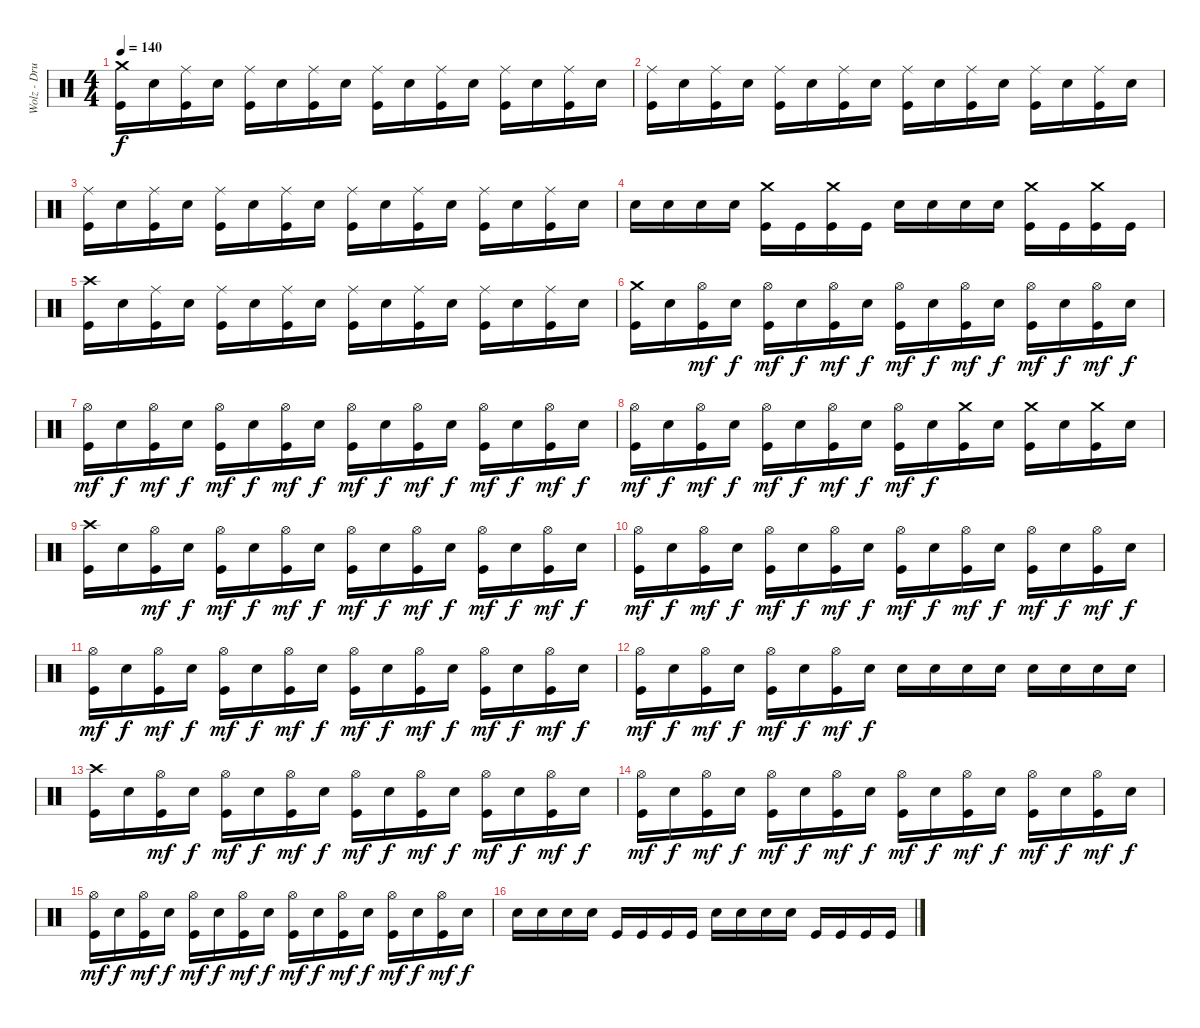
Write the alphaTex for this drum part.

\track ("Wolz - Drums" "Wolz - Dru") {instrument percussion}
\staff {score}
\articulation defaults
\ts (4 4)
\tempo 140
\clef neutral
\ks c
("Crash medium (hit)" "Kick (hit)").16{dy f} "Electric Snare (hit)".16 ("Ride (middle)" "Kick (hit)").16 "Electric Snare (hit)".16 ("Ride (middle)" "Kick (hit)").16 "Electric Snare (hit)".16 ("Ride (middle)" "Kick (hit)").16 "Electric Snare (hit)".16 ("Ride (middle)" "Kick (hit)").16 "Electric Snare (hit)".16 ("Ride (middle)" "Kick (hit)").16 "Electric Snare (hit)".16 ("Ride (middle)" "Kick (hit)").16 "Electric Snare (hit)".16 ("Ride (middle)" "Kick (hit)").16 "Electric Snare (hit)".16 |
("Ride (middle)" "Kick (hit)").16 "Electric Snare (hit)".16 ("Ride (middle)" "Kick (hit)").16 "Electric Snare (hit)".16 ("Ride (middle)" "Kick (hit)").16 "Electric Snare (hit)".16 ("Ride (middle)" "Kick (hit)").16 "Electric Snare (hit)".16 ("Ride (middle)" "Kick (hit)").16 "Electric Snare (hit)".16 ("Ride (middle)" "Kick (hit)").16 "Electric Snare (hit)".16 ("Ride (middle)" "Kick (hit)").16 "Electric Snare (hit)".16 ("Ride (middle)" "Kick (hit)").16 "Electric Snare (hit)".16 |
("Ride (middle)" "Kick (hit)").16 "Electric Snare (hit)".16 ("Ride (middle)" "Kick (hit)").16 "Electric Snare (hit)".16 ("Ride (middle)" "Kick (hit)").16 "Electric Snare (hit)".16 ("Ride (middle)" "Kick (hit)").16 "Electric Snare (hit)".16 ("Ride (middle)" "Kick (hit)").16 "Electric Snare (hit)".16 ("Ride (middle)" "Kick (hit)").16 "Electric Snare (hit)".16 ("Ride (middle)" "Kick (hit)").16 "Electric Snare (hit)".16 ("Ride (middle)" "Kick (hit)").16 "Electric Snare (hit)".16 |
"Electric Snare (hit)".16 "Electric Snare (hit)".16 "Electric Snare (hit)".16 "Electric Snare (hit)".16 ("Crash medium (hit)" "Kick (hit)").16 "Kick (hit)".16 ("Crash medium (hit)" "Kick (hit)").16 "Kick (hit)".16 "Electric Snare (hit)".16 "Electric Snare (hit)".16 "Electric Snare (hit)".16 "Electric Snare (hit)".16 ("Crash medium (hit)" "Kick (hit)").16 "Kick (hit)".16 ("Crash medium (hit)" "Kick (hit)").16 "Kick (hit)".16 |
("Crash high (hit)" "Kick (hit)").16 "Electric Snare (hit)".16 ("Ride (middle)" "Kick (hit)").16 "Electric Snare (hit)".16 ("Ride (middle)" "Kick (hit)").16 "Electric Snare (hit)".16 ("Ride (middle)" "Kick (hit)").16 "Electric Snare (hit)".16 ("Ride (middle)" "Kick (hit)").16 "Electric Snare (hit)".16 ("Ride (middle)" "Kick (hit)").16 "Electric Snare (hit)".16 ("Ride (middle)" "Kick (hit)").16 "Electric Snare (hit)".16 ("Ride (middle)" "Kick (hit)").16 "Electric Snare (hit)".16 |
("Crash medium (hit)" "Kick (hit)").16 "Electric Snare (hit)".16 ("Hi-Hat (open)" "Kick (hit)").16{dy mf} "Electric Snare (hit)".16{dy f} ("Hi-Hat (open)" "Kick (hit)").16{dy mf} "Electric Snare (hit)".16{dy f} ("Hi-Hat (open)" "Kick (hit)").16{dy mf} "Electric Snare (hit)".16{dy f} ("Hi-Hat (open)" "Kick (hit)").16{dy mf} "Electric Snare (hit)".16{dy f} ("Hi-Hat (open)" "Kick (hit)").16{dy mf} "Electric Snare (hit)".16{dy f} ("Hi-Hat (open)" "Kick (hit)").16{dy mf} "Electric Snare (hit)".16{dy f} ("Hi-Hat (open)" "Kick (hit)").16{dy mf} "Electric Snare (hit)".16{dy f} |
("Hi-Hat (open)" "Kick (hit)").16{dy mf} "Electric Snare (hit)".16{dy f} ("Hi-Hat (open)" "Kick (hit)").16{dy mf} "Electric Snare (hit)".16{dy f} ("Hi-Hat (open)" "Kick (hit)").16{dy mf} "Electric Snare (hit)".16{dy f} ("Hi-Hat (open)" "Kick (hit)").16{dy mf} "Electric Snare (hit)".16{dy f} ("Hi-Hat (open)" "Kick (hit)").16{dy mf} "Electric Snare (hit)".16{dy f} ("Hi-Hat (open)" "Kick (hit)").16{dy mf} "Electric Snare (hit)".16{dy f} ("Hi-Hat (open)" "Kick (hit)").16{dy mf} "Electric Snare (hit)".16{dy f} ("Hi-Hat (open)" "Kick (hit)").16{dy mf} "Electric Snare (hit)".16{dy f} |
("Hi-Hat (open)" "Kick (hit)").16{dy mf} "Electric Snare (hit)".16{dy f} ("Hi-Hat (open)" "Kick (hit)").16{dy mf} "Electric Snare (hit)".16{dy f} ("Hi-Hat (open)" "Kick (hit)").16{dy mf} "Electric Snare (hit)".16{dy f} ("Hi-Hat (open)" "Kick (hit)").16{dy mf} "Electric Snare (hit)".16{dy f} ("Hi-Hat (open)" "Kick (hit)").16{dy mf} "Electric Snare (hit)".16{dy f} ("Crash medium (hit)" "Kick (hit)").16 "Electric Snare (hit)".16 ("Crash medium (hit)" "Kick (hit)").16 "Electric Snare (hit)".16 ("Crash medium (hit)" "Kick (hit)").16 "Electric Snare (hit)".16 |
("Crash high (hit)" "Kick (hit)").16 "Electric Snare (hit)".16 ("Hi-Hat (open)" "Kick (hit)").16{dy mf} "Electric Snare (hit)".16{dy f} ("Hi-Hat (open)" "Kick (hit)").16{dy mf} "Electric Snare (hit)".16{dy f} ("Hi-Hat (open)" "Kick (hit)").16{dy mf} "Electric Snare (hit)".16{dy f} ("Hi-Hat (open)" "Kick (hit)").16{dy mf} "Electric Snare (hit)".16{dy f} ("Hi-Hat (open)" "Kick (hit)").16{dy mf} "Electric Snare (hit)".16{dy f} ("Hi-Hat (open)" "Kick (hit)").16{dy mf} "Electric Snare (hit)".16{dy f} ("Hi-Hat (open)" "Kick (hit)").16{dy mf} "Electric Snare (hit)".16{dy f} |
("Hi-Hat (open)" "Kick (hit)").16{dy mf} "Electric Snare (hit)".16{dy f} ("Hi-Hat (open)" "Kick (hit)").16{dy mf} "Electric Snare (hit)".16{dy f} ("Hi-Hat (open)" "Kick (hit)").16{dy mf} "Electric Snare (hit)".16{dy f} ("Hi-Hat (open)" "Kick (hit)").16{dy mf} "Electric Snare (hit)".16{dy f} ("Hi-Hat (open)" "Kick (hit)").16{dy mf} "Electric Snare (hit)".16{dy f} ("Hi-Hat (open)" "Kick (hit)").16{dy mf} "Electric Snare (hit)".16{dy f} ("Hi-Hat (open)" "Kick (hit)").16{dy mf} "Electric Snare (hit)".16{dy f} ("Hi-Hat (open)" "Kick (hit)").16{dy mf} "Electric Snare (hit)".16{dy f} |
("Hi-Hat (open)" "Kick (hit)").16{dy mf} "Electric Snare (hit)".16{dy f} ("Hi-Hat (open)" "Kick (hit)").16{dy mf} "Electric Snare (hit)".16{dy f} ("Hi-Hat (open)" "Kick (hit)").16{dy mf} "Electric Snare (hit)".16{dy f} ("Hi-Hat (open)" "Kick (hit)").16{dy mf} "Electric Snare (hit)".16{dy f} ("Hi-Hat (open)" "Kick (hit)").16{dy mf} "Electric Snare (hit)".16{dy f} ("Hi-Hat (open)" "Kick (hit)").16{dy mf} "Electric Snare (hit)".16{dy f} ("Hi-Hat (open)" "Kick (hit)").16{dy mf} "Electric Snare (hit)".16{dy f} ("Hi-Hat (open)" "Kick (hit)").16{dy mf} "Electric Snare (hit)".16{dy f} |
("Hi-Hat (open)" "Kick (hit)").16{dy mf} "Electric Snare (hit)".16{dy f} ("Hi-Hat (open)" "Kick (hit)").16{dy mf} "Electric Snare (hit)".16{dy f} ("Hi-Hat (open)" "Kick (hit)").16{dy mf} "Electric Snare (hit)".16{dy f} ("Hi-Hat (open)" "Kick (hit)").16{dy mf} "Electric Snare (hit)".16{dy f} "Electric Snare (hit)".16 "Electric Snare (hit)".16 "Electric Snare (hit)".16 "Electric Snare (hit)".16 "Electric Snare (hit)".16 "Electric Snare (hit)".16 "Electric Snare (hit)".16 "Electric Snare (hit)".16 |
("Crash high (hit)" "Kick (hit)").16 "Electric Snare (hit)".16 ("Hi-Hat (open)" "Kick (hit)").16{dy mf} "Electric Snare (hit)".16{dy f} ("Hi-Hat (open)" "Kick (hit)").16{dy mf} "Electric Snare (hit)".16{dy f} ("Hi-Hat (open)" "Kick (hit)").16{dy mf} "Electric Snare (hit)".16{dy f} ("Hi-Hat (open)" "Kick (hit)").16{dy mf} "Electric Snare (hit)".16{dy f} ("Hi-Hat (open)" "Kick (hit)").16{dy mf} "Electric Snare (hit)".16{dy f} ("Hi-Hat (open)" "Kick (hit)").16{dy mf} "Electric Snare (hit)".16{dy f} ("Hi-Hat (open)" "Kick (hit)").16{dy mf} "Electric Snare (hit)".16{dy f} |
("Hi-Hat (open)" "Kick (hit)").16{dy mf} "Electric Snare (hit)".16{dy f} ("Hi-Hat (open)" "Kick (hit)").16{dy mf} "Electric Snare (hit)".16{dy f} ("Hi-Hat (open)" "Kick (hit)").16{dy mf} "Electric Snare (hit)".16{dy f} ("Hi-Hat (open)" "Kick (hit)").16{dy mf} "Electric Snare (hit)".16{dy f} ("Hi-Hat (open)" "Kick (hit)").16{dy mf} "Electric Snare (hit)".16{dy f} ("Hi-Hat (open)" "Kick (hit)").16{dy mf} "Electric Snare (hit)".16{dy f} ("Hi-Hat (open)" "Kick (hit)").16{dy mf} "Electric Snare (hit)".16{dy f} ("Hi-Hat (open)" "Kick (hit)").16{dy mf} "Electric Snare (hit)".16{dy f} |
("Hi-Hat (open)" "Kick (hit)").16{dy mf} "Electric Snare (hit)".16{dy f} ("Hi-Hat (open)" "Kick (hit)").16{dy mf} "Electric Snare (hit)".16{dy f} ("Hi-Hat (open)" "Kick (hit)").16{dy mf} "Electric Snare (hit)".16{dy f} ("Hi-Hat (open)" "Kick (hit)").16{dy mf} "Electric Snare (hit)".16{dy f} ("Hi-Hat (open)" "Kick (hit)").16{dy mf} "Electric Snare (hit)".16{dy f} ("Hi-Hat (open)" "Kick (hit)").16{dy mf} "Electric Snare (hit)".16{dy f} ("Hi-Hat (open)" "Kick (hit)").16{dy mf} "Electric Snare (hit)".16{dy f} ("Hi-Hat (open)" "Kick (hit)").16{dy mf} "Electric Snare (hit)".16{dy f} |
"Electric Snare (hit)".16 "Electric Snare (hit)".16 "Electric Snare (hit)".16 "Electric Snare (hit)".16 "Kick (hit)".16 "Kick (hit)".16 "Kick (hit)".16 "Kick (hit)".16 "Electric Snare (hit)".16 "Electric Snare (hit)".16 "Electric Snare (hit)".16 "Electric Snare (hit)".16 "Kick (hit)".16 "Kick (hit)".16 "Kick (hit)".16 "Kick (hit)".16
